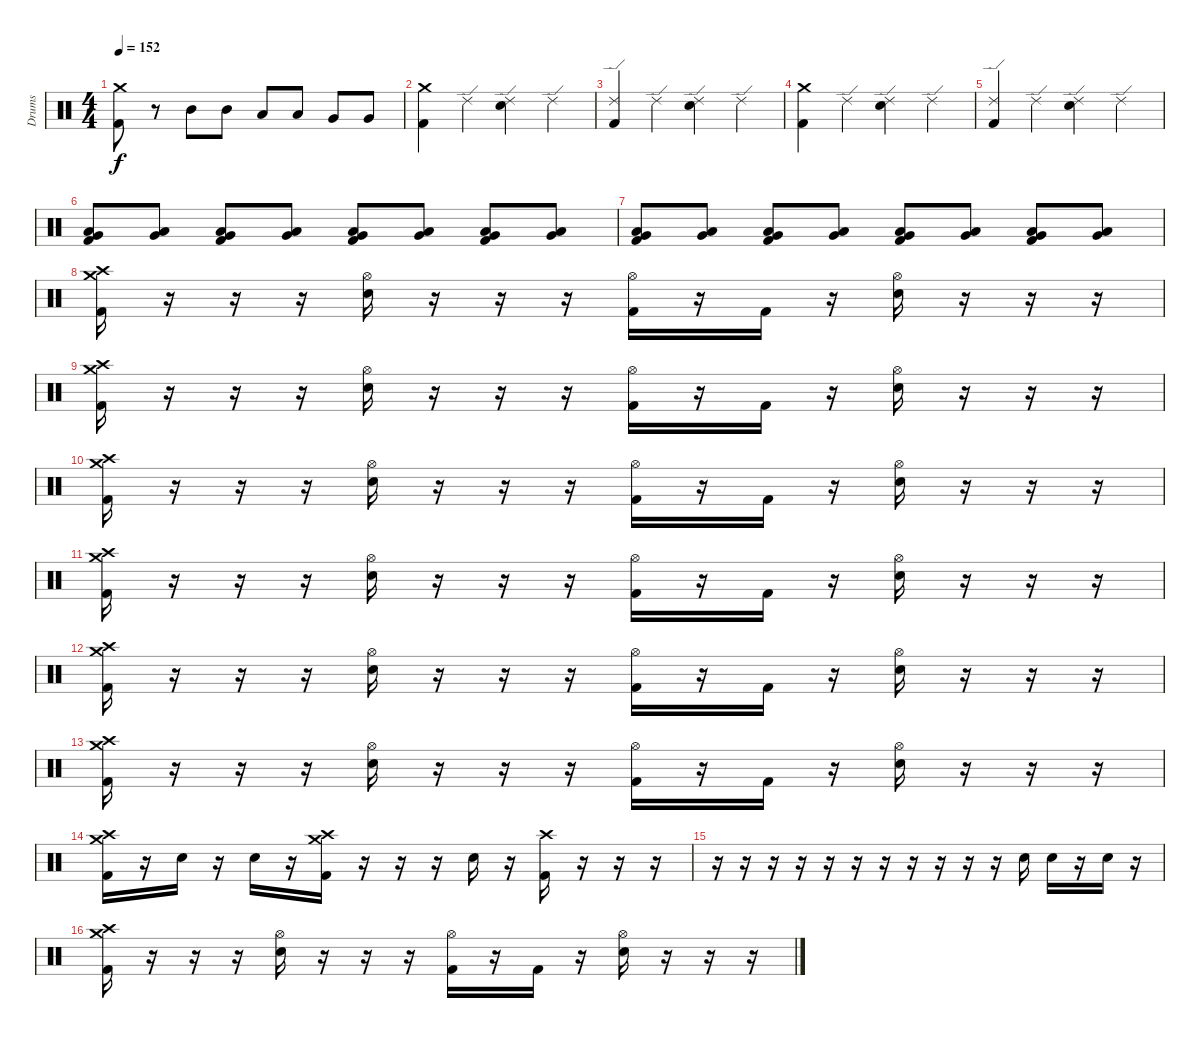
\track ("Drums" "Drums") {instrument percussion}
\staff {score}
\articulation defaults
\ts (4 4)
\tempo 152
\clef neutral
\ks c
("Crash medium (hit)" "Kick (hit) 2").8{dy f} r.8 "Mid Tom (hit)".8 "Mid Tom (hit)".8 "Low Tom (hit)".8 "Low Tom (hit)".8 "Very Low Tom (hit)".8 "Very Low Tom (hit)".8 |
("Crash medium (hit)" "Kick (hit) 2").4 "Ride (edge) 2".4 ("Ride (edge) 2" "Electric Snare (hit)").4 "Ride (edge) 2".4 |
("Ride (edge) 2" "Kick (hit) 2").4 "Ride (edge) 2".4 ("Ride (edge) 2" "Electric Snare (hit)").4 "Ride (edge) 2".4 |
("Crash medium (hit)" "Kick (hit) 2").4 "Ride (edge) 2".4 ("Ride (edge) 2" "Electric Snare (hit)").4 "Ride (edge) 2".4 |
("Ride (edge) 2" "Kick (hit) 2").4 "Ride (edge) 2".4 ("Ride (edge) 2" "Electric Snare (hit)").4 "Ride (edge) 2".4 |
("Low Tom (hit)" "Very Low Tom (hit)" "Kick (hit) 2").8 ("Low Tom (hit)" "Very Low Tom (hit)").8 ("Low Tom (hit)" "Very Low Tom (hit)" "Kick (hit) 2").8 ("Low Tom (hit)" "Very Low Tom (hit)").8 ("Low Tom (hit)" "Very Low Tom (hit)" "Kick (hit) 2").8 ("Low Tom (hit)" "Very Low Tom (hit)").8 ("Low Tom (hit)" "Very Low Tom (hit)" "Kick (hit) 2").8 ("Low Tom (hit)" "Very Low Tom (hit)").8 |
("Low Tom (hit)" "Very Low Tom (hit)" "Kick (hit) 2").8 ("Low Tom (hit)" "Very Low Tom (hit)").8 ("Low Tom (hit)" "Very Low Tom (hit)" "Kick (hit) 2").8 ("Low Tom (hit)" "Very Low Tom (hit)").8 ("Low Tom (hit)" "Very Low Tom (hit)" "Kick (hit) 2").8 ("Low Tom (hit)" "Very Low Tom (hit)").8 ("Low Tom (hit)" "Very Low Tom (hit)" "Kick (hit) 2").8 ("Low Tom (hit)" "Very Low Tom (hit)").8 |
("Crash high (hit)" "Crash medium (hit)" "Kick (hit) 2").16 r.16 r.16 r.16 ("Hi-Hat (open)" "Electric Snare (hit)").16 r.16 r.16 r.16 ("Hi-Hat (open)" "Kick (hit) 2").16 r.16 "Kick (hit) 2".16 r.16 ("Hi-Hat (open)" "Electric Snare (hit)").16 r.16 r.16 r.16 |
("Crash high (hit)" "Crash medium (hit)" "Kick (hit) 2").16 r.16 r.16 r.16 ("Hi-Hat (open)" "Electric Snare (hit)").16 r.16 r.16 r.16 ("Hi-Hat (open)" "Kick (hit) 2").16 r.16 "Kick (hit) 2".16 r.16 ("Hi-Hat (open)" "Electric Snare (hit)").16 r.16 r.16 r.16 |
("Crash high (hit)" "Crash medium (hit)" "Kick (hit) 2").16 r.16 r.16 r.16 ("Hi-Hat (open)" "Electric Snare (hit)").16 r.16 r.16 r.16 ("Hi-Hat (open)" "Kick (hit) 2").16 r.16 "Kick (hit) 2".16 r.16 ("Hi-Hat (open)" "Electric Snare (hit)").16 r.16 r.16 r.16 |
("Crash high (hit)" "Crash medium (hit)" "Kick (hit) 2").16 r.16 r.16 r.16 ("Hi-Hat (open)" "Electric Snare (hit)").16 r.16 r.16 r.16 ("Hi-Hat (open)" "Kick (hit) 2").16 r.16 "Kick (hit) 2".16 r.16 ("Hi-Hat (open)" "Electric Snare (hit)").16 r.16 r.16 r.16 |
("Crash high (hit)" "Crash medium (hit)" "Kick (hit) 2").16 r.16 r.16 r.16 ("Hi-Hat (open)" "Electric Snare (hit)").16 r.16 r.16 r.16 ("Hi-Hat (open)" "Kick (hit) 2").16 r.16 "Kick (hit) 2".16 r.16 ("Hi-Hat (open)" "Electric Snare (hit)").16 r.16 r.16 r.16 |
("Crash high (hit)" "Crash medium (hit)" "Kick (hit) 2").16 r.16 r.16 r.16 ("Hi-Hat (open)" "Electric Snare (hit)").16 r.16 r.16 r.16 ("Hi-Hat (open)" "Kick (hit) 2").16 r.16 "Kick (hit) 2".16 r.16 ("Hi-Hat (open)" "Electric Snare (hit)").16 r.16 r.16 r.16 |
("Crash high (hit)" "Crash medium (hit)" "Kick (hit) 2").16 r.16 "Electric Snare (hit)".16 r.16 "Electric Snare (hit)".16 r.16 ("Crash high (hit)" "Crash medium (hit)" "Kick (hit) 2").16 r.16 r.16 r.16 "Electric Snare (hit)".16 r.16 ("Crash high (hit)" "Kick (hit) 2").16 r.16 r.16 r.16 |
r.16 r.16 r.16 r.16 r.16 r.16 r.16 r.16 r.16 r.16 r.16 "Electric Snare (hit)".16 "Electric Snare (hit)".16 r.16 "Electric Snare (hit)".16 r.16 |
("Crash high (hit)" "Crash medium (hit)" "Kick (hit) 2").16 r.16 r.16 r.16 ("Hi-Hat (open)" "Electric Snare (hit)").16 r.16 r.16 r.16 ("Hi-Hat (open)" "Kick (hit) 2").16 r.16 "Kick (hit) 2".16 r.16 ("Hi-Hat (open)" "Electric Snare (hit)").16 r.16 r.16 r.16
